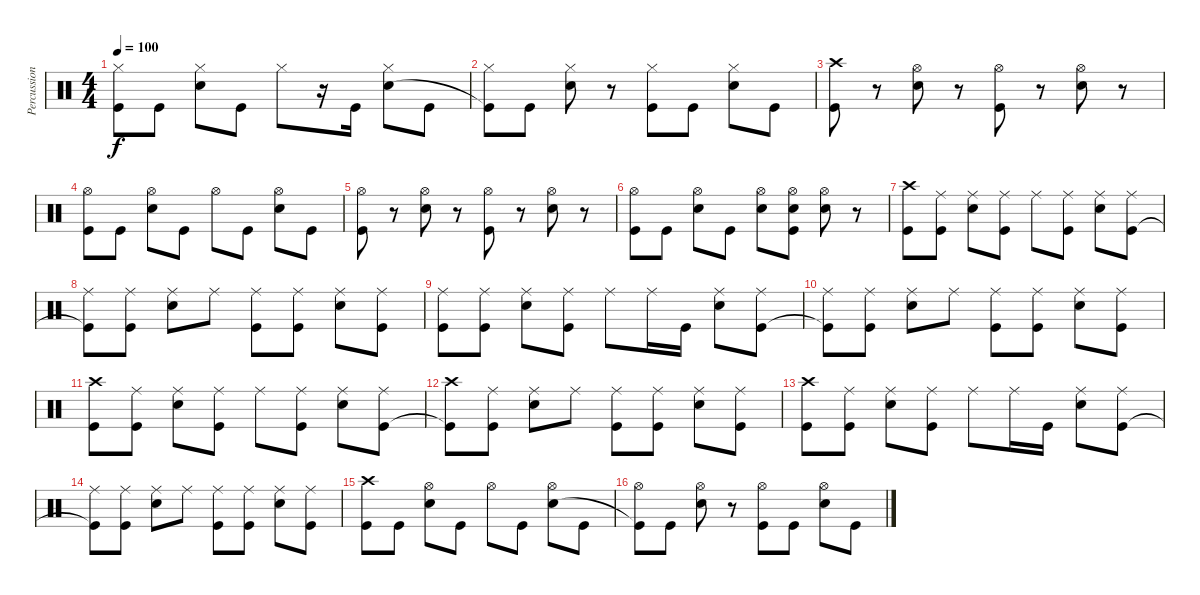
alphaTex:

\track ("Percussion" "Percussion") {instrument percussion}
\staff {score}
\articulation defaults
\ts (4 4)
\tempo 100
\clef neutral
\ks c
("Hi-Hat (closed)" "Kick (hit)").8{dy f} "Kick (hit)".8 ("Hi-Hat (closed)" "Electric Snare (hit)").8 "Kick (hit)".8 "Hi-Hat (closed)".8 r.16 "Kick (hit)".16 ("Hi-Hat (closed)" "Electric Snare (hit)").8 "Kick (hit)".8 |
("Hi-Hat (closed)" "Kick (hit)"{t}).8 "Kick (hit)".8 ("Hi-Hat (closed)" "Electric Snare (hit)").8 r.8 ("Hi-Hat (closed)" "Kick (hit)").8 "Kick (hit)".8 ("Hi-Hat (closed)" "Electric Snare (hit)").8 "Kick (hit)".8 |
("Crash high (hit)" "Kick (hit)").8 r.8 ("Hi-Hat (open)" "Electric Snare (hit)").8 r.8 ("Hi-Hat (open)" "Kick (hit)").8 r.8 ("Hi-Hat (open)" "Electric Snare (hit)").8 r.8 |
("Hi-Hat (open)" "Kick (hit)").8 "Kick (hit)".8 ("Hi-Hat (open)" "Electric Snare (hit)").8 "Kick (hit)".8 "Hi-Hat (open)".8 "Kick (hit)".8 ("Hi-Hat (open)" "Electric Snare (hit)").8 "Kick (hit)".8 |
("Hi-Hat (open)" "Kick (hit)").8 r.8 ("Hi-Hat (open)" "Electric Snare (hit)").8 r.8 ("Hi-Hat (open)" "Kick (hit)").8 r.8 ("Hi-Hat (open)" "Electric Snare (hit)").8 r.8 |
("Hi-Hat (open)" "Kick (hit)").8 "Kick (hit)".8 ("Hi-Hat (open)" "Electric Snare (hit)").8 "Kick (hit)".8 ("Hi-Hat (open)" "Electric Snare (hit)").8 ("Hi-Hat (open)" "Electric Snare (hit)" "Kick (hit)").8 ("Hi-Hat (open)" "Electric Snare (hit)").8 r.8 |
("Crash high (hit)" "Kick (hit)").8 ("Ride (middle)" "Kick (hit)").8 ("Ride (middle)" "Electric Snare (hit)").8 ("Ride (middle)" "Kick (hit)").8 "Ride (middle)".8 ("Ride (middle)" "Kick (hit)").8 ("Ride (middle)" "Electric Snare (hit)").8 ("Ride (middle)" "Kick (hit)").8 |
("Ride (middle)" "Kick (hit)"{t}).8 ("Ride (middle)" "Kick (hit)").8 ("Ride (middle)" "Electric Snare (hit)").8 "Ride (middle)".8 ("Ride (middle)" "Kick (hit)").8 ("Ride (middle)" "Kick (hit)").8 ("Ride (middle)" "Electric Snare (hit)").8 ("Ride (middle)" "Kick (hit)").8 |
("Ride (middle)" "Kick (hit)").8 ("Ride (middle)" "Kick (hit)").8 ("Ride (middle)" "Electric Snare (hit)").8 ("Ride (middle)" "Kick (hit)").8 "Ride (middle)".8 "Ride (middle)".16 "Kick (hit)".16 ("Ride (middle)" "Electric Snare (hit)").8 ("Ride (middle)" "Kick (hit)").8 |
("Ride (middle)" "Kick (hit)"{t}).8 ("Ride (middle)" "Kick (hit)").8 ("Ride (middle)" "Electric Snare (hit)").8 "Ride (middle)".8 ("Ride (middle)" "Kick (hit)").8 ("Ride (middle)" "Kick (hit)").8 ("Ride (middle)" "Electric Snare (hit)").8 ("Ride (middle)" "Kick (hit)").8 |
("Crash high (hit)" "Kick (hit)").8 ("Ride (middle)" "Kick (hit)").8 ("Ride (middle)" "Electric Snare (hit)").8 ("Ride (middle)" "Kick (hit)").8 "Ride (middle)".8 ("Ride (middle)" "Kick (hit)").8 ("Ride (middle)" "Electric Snare (hit)").8 ("Ride (middle)" "Kick (hit)").8 |
("Crash high (hit)" "Kick (hit)"{t}).8 ("Ride (middle)" "Kick (hit)").8 ("Ride (middle)" "Electric Snare (hit)").8 "Ride (middle)".8 ("Ride (middle)" "Kick (hit)").8 ("Ride (middle)" "Kick (hit)").8 ("Ride (middle)" "Electric Snare (hit)").8 ("Ride (middle)" "Kick (hit)").8 |
("Crash high (hit)" "Kick (hit)").8 ("Ride (middle)" "Kick (hit)").8 ("Ride (middle)" "Electric Snare (hit)").8 ("Ride (middle)" "Kick (hit)").8 "Ride (middle)".8 "Ride (middle)".16 "Kick (hit)".16 ("Ride (middle)" "Electric Snare (hit)").8 ("Ride (middle)" "Kick (hit)").8 |
("Ride (middle)" "Kick (hit)"{t}).8 ("Ride (middle)" "Kick (hit)").8 ("Ride (middle)" "Electric Snare (hit)").8 "Ride (middle)".8 ("Ride (middle)" "Kick (hit)").8 ("Ride (middle)" "Kick (hit)").8 ("Ride (middle)" "Electric Snare (hit)").8 ("Ride (middle)" "Kick (hit)").8 |
("Crash high (hit)" "Kick (hit)").8 "Kick (hit)".8 ("Hi-Hat (open)" "Electric Snare (hit)").8 "Kick (hit)".8 "Hi-Hat (open)".8 "Kick (hit)".8 ("Hi-Hat (open)" "Electric Snare (hit)").8 "Kick (hit)".8 |
("Hi-Hat (open)" "Kick (hit)"{t}).8 "Kick (hit)".8 ("Hi-Hat (open)" "Electric Snare (hit)").8 r.8 ("Hi-Hat (open)" "Kick (hit)").8 "Kick (hit)".8 ("Hi-Hat (open)" "Electric Snare (hit)").8 "Kick (hit)".8
